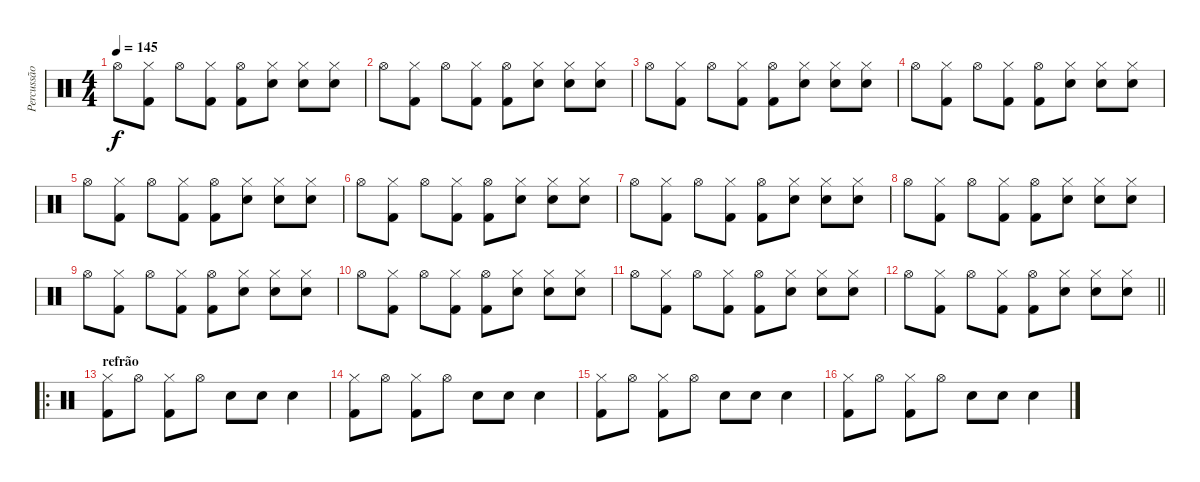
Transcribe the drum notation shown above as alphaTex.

\track ("Percussão" "Percussão") {instrument percussion}
\staff {score}
\articulation defaults
\ts (4 4)
\tempo 145
\clef neutral
\ks c "Hi-Hat (open)".8{dy f}
("Hi-Hat (closed)" "Kick (hit) 2").8 "Hi-Hat (open)".8 ("Hi-Hat (closed)" "Kick (hit) 2").8 ("Hi-Hat (open)" "Kick (hit) 2").8 ("Hi-Hat (closed)" "Snare (hit) 2").8 ("Hi-Hat (closed)" "Snare (hit) 2").8 ("Hi-Hat (closed)" "Snare (hit) 2").8 |
"Hi-Hat (open)".8 ("Hi-Hat (closed)" "Kick (hit) 2").8 "Hi-Hat (open)".8 ("Hi-Hat (closed)" "Kick (hit) 2").8 ("Hi-Hat (open)" "Kick (hit) 2").8 ("Hi-Hat (closed)" "Snare (hit) 2").8 ("Hi-Hat (closed)" "Snare (hit) 2").8 ("Hi-Hat (closed)" "Snare (hit) 2").8 |
"Hi-Hat (open)".8 ("Hi-Hat (closed)" "Kick (hit) 2").8 "Hi-Hat (open)".8 ("Hi-Hat (closed)" "Kick (hit) 2").8 ("Hi-Hat (open)" "Kick (hit) 2").8 ("Hi-Hat (closed)" "Snare (hit) 2").8 ("Hi-Hat (closed)" "Snare (hit) 2").8 ("Hi-Hat (closed)" "Snare (hit) 2").8 |
"Hi-Hat (open)".8 ("Hi-Hat (closed)" "Kick (hit) 2").8 "Hi-Hat (open)".8 ("Hi-Hat (closed)" "Kick (hit) 2").8 ("Hi-Hat (open)" "Kick (hit) 2").8 ("Hi-Hat (closed)" "Snare (hit) 2").8 ("Hi-Hat (closed)" "Snare (hit) 2").8 ("Hi-Hat (closed)" "Snare (hit) 2").8 |
"Hi-Hat (open)".8 ("Hi-Hat (closed)" "Kick (hit) 2").8 "Hi-Hat (open)".8 ("Hi-Hat (closed)" "Kick (hit) 2").8 ("Hi-Hat (open)" "Kick (hit) 2").8 ("Hi-Hat (closed)" "Snare (hit) 2").8 ("Hi-Hat (closed)" "Snare (hit) 2").8 ("Hi-Hat (closed)" "Snare (hit) 2").8 |
"Hi-Hat (open)".8 ("Hi-Hat (closed)" "Kick (hit) 2").8 "Hi-Hat (open)".8 ("Hi-Hat (closed)" "Kick (hit) 2").8 ("Hi-Hat (open)" "Kick (hit) 2").8 ("Hi-Hat (closed)" "Snare (hit) 2").8 ("Hi-Hat (closed)" "Snare (hit) 2").8 ("Hi-Hat (closed)" "Snare (hit) 2").8 |
"Hi-Hat (open)".8 ("Hi-Hat (closed)" "Kick (hit) 2").8 "Hi-Hat (open)".8 ("Hi-Hat (closed)" "Kick (hit) 2").8 ("Hi-Hat (open)" "Kick (hit) 2").8 ("Hi-Hat (closed)" "Snare (hit) 2").8 ("Hi-Hat (closed)" "Snare (hit) 2").8 ("Hi-Hat (closed)" "Snare (hit) 2").8 |
"Hi-Hat (open)".8 ("Hi-Hat (closed)" "Kick (hit) 2").8 "Hi-Hat (open)".8 ("Hi-Hat (closed)" "Kick (hit) 2").8 ("Hi-Hat (open)" "Kick (hit) 2").8 ("Hi-Hat (closed)" "Snare (hit) 2").8 ("Hi-Hat (closed)" "Snare (hit) 2").8 ("Hi-Hat (closed)" "Snare (hit) 2").8 |
"Hi-Hat (open)".8 ("Hi-Hat (closed)" "Kick (hit) 2").8 "Hi-Hat (open)".8 ("Hi-Hat (closed)" "Kick (hit) 2").8 ("Hi-Hat (open)" "Kick (hit) 2").8 ("Hi-Hat (closed)" "Snare (hit) 2").8 ("Hi-Hat (closed)" "Snare (hit) 2").8 ("Hi-Hat (closed)" "Snare (hit) 2").8 |
"Hi-Hat (open)".8 ("Hi-Hat (closed)" "Kick (hit) 2").8 "Hi-Hat (open)".8 ("Hi-Hat (closed)" "Kick (hit) 2").8 ("Hi-Hat (open)" "Kick (hit) 2").8 ("Hi-Hat (closed)" "Snare (hit) 2").8 ("Hi-Hat (closed)" "Snare (hit) 2").8 ("Hi-Hat (closed)" "Snare (hit) 2").8 |
"Hi-Hat (open)".8 ("Hi-Hat (closed)" "Kick (hit) 2").8 "Hi-Hat (open)".8 ("Hi-Hat (closed)" "Kick (hit) 2").8 ("Hi-Hat (open)" "Kick (hit) 2").8 ("Hi-Hat (closed)" "Snare (hit) 2").8 ("Hi-Hat (closed)" "Snare (hit) 2").8 ("Hi-Hat (closed)" "Snare (hit) 2").8 |
\barLineRight lightlight "Hi-Hat (open)".8
("Hi-Hat (closed)" "Kick (hit) 2").8 "Hi-Hat (open)".8 ("Hi-Hat (closed)" "Kick (hit) 2").8 ("Hi-Hat (open)" "Kick (hit) 2").8 ("Hi-Hat (closed)" "Snare (hit) 2").8 ("Hi-Hat (closed)" "Snare (hit) 2").8 ("Hi-Hat (closed)" "Snare (hit) 2").8 |
\ro
\section ("" "refrão")
("Hi-Hat (closed)" "Kick (hit) 2").8 "Hi-Hat (open)".8 ("Hi-Hat (closed)" "Kick (hit) 2").8 "Hi-Hat (open)".8 "Snare (hit) 2".8 "Snare (hit) 2".8 "Snare (hit) 2".4 |
("Hi-Hat (closed)" "Kick (hit) 2").8 "Hi-Hat (open)".8 ("Hi-Hat (closed)" "Kick (hit) 2").8 "Hi-Hat (open)".8 "Snare (hit) 2".8 "Snare (hit) 2".8 "Snare (hit) 2".4 |
("Hi-Hat (closed)" "Kick (hit) 2").8 "Hi-Hat (open)".8 ("Hi-Hat (closed)" "Kick (hit) 2").8 "Hi-Hat (open)".8 "Snare (hit) 2".8 "Snare (hit) 2".8 "Snare (hit) 2".4 |
("Hi-Hat (closed)" "Kick (hit) 2").8 "Hi-Hat (open)".8 ("Hi-Hat (closed)" "Kick (hit) 2").8 "Hi-Hat (open)".8 "Snare (hit) 2".8 "Snare (hit) 2".8 "Snare (hit) 2".4
